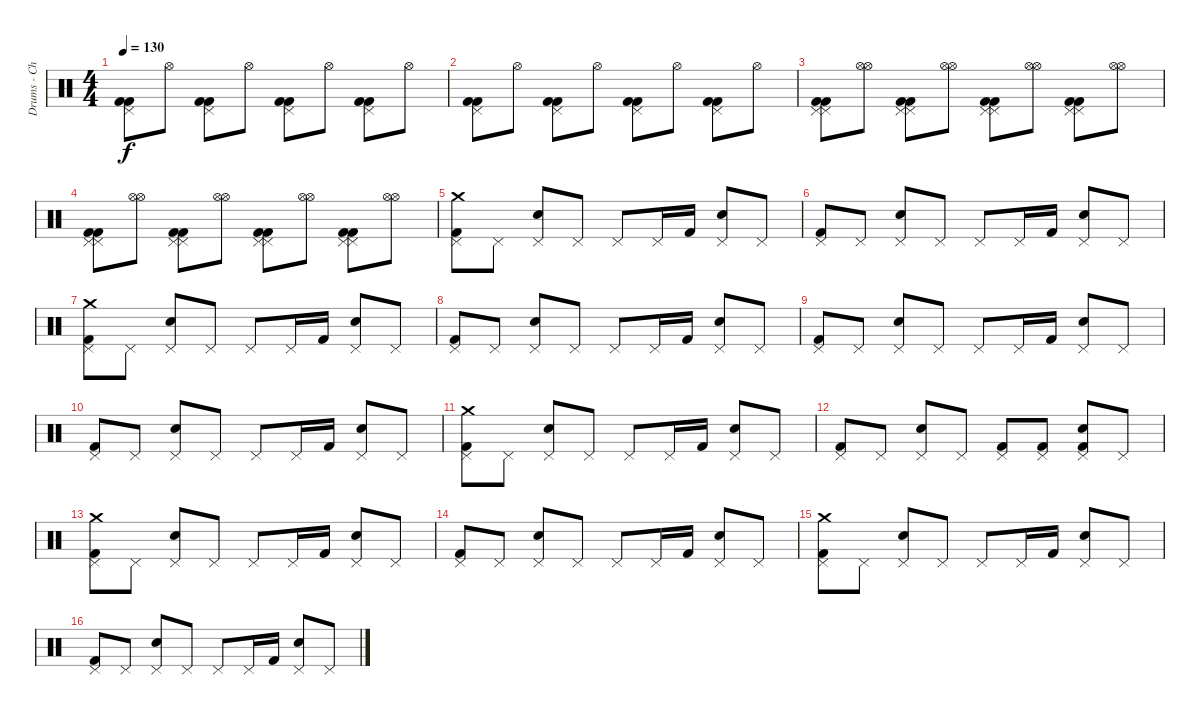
\track ("Drums - Christoph Schneider" "Drums - Ch") {instrument percussion}
\staff {score}
\articulation defaults
\ts (4 4)
\tempo 130
\clef neutral
\ks c
("Pedal Hi-Hat (hit)" "Kick (hit) 2" "Kick (hit) 2").8{dy f} "Hi-Hat (open)".8 ("Pedal Hi-Hat (hit)" "Kick (hit) 2" "Kick (hit) 2").8 "Hi-Hat (open)".8 ("Pedal Hi-Hat (hit)" "Kick (hit) 2" "Kick (hit) 2").8 "Hi-Hat (open)".8 ("Pedal Hi-Hat (hit)" "Kick (hit) 2" "Kick (hit) 2").8 "Hi-Hat (open)".8 |
("Pedal Hi-Hat (hit)" "Kick (hit) 2" "Kick (hit) 2").8 "Hi-Hat (open)".8 ("Pedal Hi-Hat (hit)" "Kick (hit) 2" "Kick (hit) 2").8 "Hi-Hat (open)".8 ("Pedal Hi-Hat (hit)" "Kick (hit) 2" "Kick (hit) 2").8 "Hi-Hat (open)".8 ("Pedal Hi-Hat (hit)" "Kick (hit) 2" "Kick (hit) 2").8 "Hi-Hat (open)".8 |
("Pedal Hi-Hat (hit)" "Pedal Hi-Hat (hit)" "Kick (hit) 2" "Kick (hit) 2").8 ("Hi-Hat (open)" "Hi-Hat (open)").8 ("Pedal Hi-Hat (hit)" "Pedal Hi-Hat (hit)" "Kick (hit) 2" "Kick (hit) 2").8 ("Hi-Hat (open)" "Hi-Hat (open)").8 ("Pedal Hi-Hat (hit)" "Pedal Hi-Hat (hit)" "Kick (hit) 2" "Kick (hit) 2").8 ("Hi-Hat (open)" "Hi-Hat (open)").8 ("Pedal Hi-Hat (hit)" "Pedal Hi-Hat (hit)" "Kick (hit) 2" "Kick (hit) 2").8 ("Hi-Hat (open)" "Hi-Hat (open)").8 |
("Pedal Hi-Hat (hit)" "Pedal Hi-Hat (hit)" "Kick (hit) 2" "Kick (hit) 2").8 ("Hi-Hat (open)" "Hi-Hat (open)").8 ("Pedal Hi-Hat (hit)" "Pedal Hi-Hat (hit)" "Kick (hit) 2" "Kick (hit) 2").8 ("Hi-Hat (open)" "Hi-Hat (open)").8 ("Pedal Hi-Hat (hit)" "Pedal Hi-Hat (hit)" "Kick (hit) 2" "Kick (hit) 2").8 ("Hi-Hat (open)" "Hi-Hat (open)").8 ("Pedal Hi-Hat (hit)" "Pedal Hi-Hat (hit)" "Kick (hit) 2" "Kick (hit) 2").8 ("Hi-Hat (open)" "Hi-Hat (open)").8 |
("Crash medium (hit)" "Pedal Hi-Hat (hit)" "Kick (hit) 2").8 "Pedal Hi-Hat (hit)".8 ("Pedal Hi-Hat (hit)" "Electric Snare (hit)").8 "Pedal Hi-Hat (hit)".8 "Pedal Hi-Hat (hit)".8 "Pedal Hi-Hat (hit)".16 "Kick (hit) 2".16 ("Pedal Hi-Hat (hit)" "Electric Snare (hit)").8 "Pedal Hi-Hat (hit)".8 |
("Pedal Hi-Hat (hit)" "Kick (hit) 2").8 "Pedal Hi-Hat (hit)".8 ("Pedal Hi-Hat (hit)" "Electric Snare (hit)").8 "Pedal Hi-Hat (hit)".8 "Pedal Hi-Hat (hit)".8 "Pedal Hi-Hat (hit)".16 "Kick (hit) 2".16 ("Pedal Hi-Hat (hit)" "Electric Snare (hit)").8 "Pedal Hi-Hat (hit)".8 |
("Crash medium (hit)" "Pedal Hi-Hat (hit)" "Kick (hit) 2").8 "Pedal Hi-Hat (hit)".8 ("Pedal Hi-Hat (hit)" "Electric Snare (hit)").8 "Pedal Hi-Hat (hit)".8 "Pedal Hi-Hat (hit)".8 "Pedal Hi-Hat (hit)".16 "Kick (hit) 2".16 ("Pedal Hi-Hat (hit)" "Electric Snare (hit)").8 "Pedal Hi-Hat (hit)".8 |
("Pedal Hi-Hat (hit)" "Kick (hit) 2").8 "Pedal Hi-Hat (hit)".8 ("Pedal Hi-Hat (hit)" "Electric Snare (hit)").8 "Pedal Hi-Hat (hit)".8 "Pedal Hi-Hat (hit)".8 "Pedal Hi-Hat (hit)".16 "Kick (hit) 2".16 ("Pedal Hi-Hat (hit)" "Electric Snare (hit)").8 "Pedal Hi-Hat (hit)".8 |
("Pedal Hi-Hat (hit)" "Kick (hit) 2").8 "Pedal Hi-Hat (hit)".8 ("Pedal Hi-Hat (hit)" "Electric Snare (hit)").8 "Pedal Hi-Hat (hit)".8 "Pedal Hi-Hat (hit)".8 "Pedal Hi-Hat (hit)".16 "Kick (hit) 2".16 ("Pedal Hi-Hat (hit)" "Electric Snare (hit)").8 "Pedal Hi-Hat (hit)".8 |
("Pedal Hi-Hat (hit)" "Kick (hit) 2").8 "Pedal Hi-Hat (hit)".8 ("Pedal Hi-Hat (hit)" "Electric Snare (hit)").8 "Pedal Hi-Hat (hit)".8 "Pedal Hi-Hat (hit)".8 "Pedal Hi-Hat (hit)".16 "Kick (hit) 2".16 ("Pedal Hi-Hat (hit)" "Electric Snare (hit)").8 "Pedal Hi-Hat (hit)".8 |
("Crash medium (hit)" "Pedal Hi-Hat (hit)" "Kick (hit) 2").8 "Pedal Hi-Hat (hit)".8 ("Pedal Hi-Hat (hit)" "Electric Snare (hit)").8 "Pedal Hi-Hat (hit)".8 "Pedal Hi-Hat (hit)".8 "Pedal Hi-Hat (hit)".16 "Kick (hit) 2".16 ("Pedal Hi-Hat (hit)" "Electric Snare (hit)").8 "Pedal Hi-Hat (hit)".8 |
("Pedal Hi-Hat (hit)" "Kick (hit) 2").8 "Pedal Hi-Hat (hit)".8 ("Pedal Hi-Hat (hit)" "Electric Snare (hit)").8 "Pedal Hi-Hat (hit)".8 ("Pedal Hi-Hat (hit)" "Kick (hit) 2").8 ("Pedal Hi-Hat (hit)" "Kick (hit) 2").8 ("Pedal Hi-Hat (hit)" "Electric Snare (hit)" "Kick (hit) 2").8 "Pedal Hi-Hat (hit)".8 |
("Crash medium (hit)" "Pedal Hi-Hat (hit)" "Kick (hit) 2").8 "Pedal Hi-Hat (hit)".8 ("Pedal Hi-Hat (hit)" "Electric Snare (hit)").8 "Pedal Hi-Hat (hit)".8 "Pedal Hi-Hat (hit)".8 "Pedal Hi-Hat (hit)".16 "Kick (hit) 2".16 ("Pedal Hi-Hat (hit)" "Electric Snare (hit)").8 "Pedal Hi-Hat (hit)".8 |
("Pedal Hi-Hat (hit)" "Kick (hit) 2").8 "Pedal Hi-Hat (hit)".8 ("Pedal Hi-Hat (hit)" "Electric Snare (hit)").8 "Pedal Hi-Hat (hit)".8 "Pedal Hi-Hat (hit)".8 "Pedal Hi-Hat (hit)".16 "Kick (hit) 2".16 ("Pedal Hi-Hat (hit)" "Electric Snare (hit)").8 "Pedal Hi-Hat (hit)".8 |
("Crash medium (hit)" "Pedal Hi-Hat (hit)" "Kick (hit) 2").8 "Pedal Hi-Hat (hit)".8 ("Pedal Hi-Hat (hit)" "Electric Snare (hit)").8 "Pedal Hi-Hat (hit)".8 "Pedal Hi-Hat (hit)".8 "Pedal Hi-Hat (hit)".16 "Kick (hit) 2".16 ("Pedal Hi-Hat (hit)" "Electric Snare (hit)").8 "Pedal Hi-Hat (hit)".8 |
("Pedal Hi-Hat (hit)" "Kick (hit) 2").8 "Pedal Hi-Hat (hit)".8 ("Pedal Hi-Hat (hit)" "Electric Snare (hit)").8 "Pedal Hi-Hat (hit)".8 "Pedal Hi-Hat (hit)".8 "Pedal Hi-Hat (hit)".16 "Kick (hit) 2".16 ("Pedal Hi-Hat (hit)" "Electric Snare (hit)").8 "Pedal Hi-Hat (hit)".8
